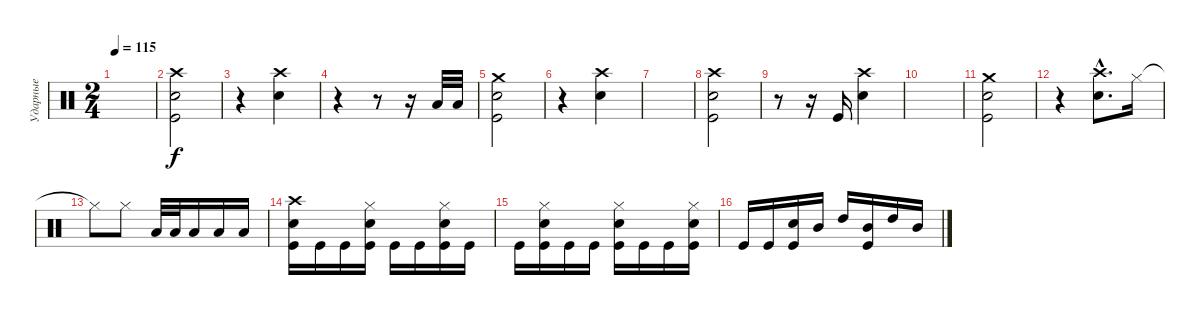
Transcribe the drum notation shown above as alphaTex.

\track ("Ударные" "Ударные") {instrument percussion}
\staff {score}
\articulation defaults
\ts (2 4)
\tempo 115
\clef neutral
\ks c
|
("Crash high (hit)" "Electric Snare (hit)" "Kick (hit)").2 |
r.4 ("Electric Snare (hit)" "Crash high (hit)").4 |
r.4 r.8 r.16 "Low Tom (hit)".32 "Low Tom (hit)".32 |
("Crash medium (hit)" "Electric Snare (hit)" "Kick (hit)").2 |
r.4 ("Electric Snare (hit)" "Crash high (hit)").4 |
|
("Crash high (hit)" "Electric Snare (hit)" "Kick (hit)").2 |
r.8 r.16 "Kick (hit)".16 ("Electric Snare (hit)" "Crash high (hit)").4 |
|
("Crash medium (hit)" "Electric Snare (hit)" "Kick (hit)").2 |
r.4 ("Electric Snare (hit)"{hac} "Crash high (hit)"{hac}).8{d} "Hi-Hat (closed)".16 |
"Hi-Hat (closed)"{t}.8 "Hi-Hat (closed)".8 "Low Tom (hit)".32 "Low Tom (hit)".32 "Low Tom (hit)".16 "Low Tom (hit)".16 "Low Tom (hit)".16 |
("Crash high (hit)" "Electric Snare (hit)" "Kick (hit)").16 "Kick (hit)".16 "Kick (hit)".16 ("Hi-Hat (closed)" "Electric Snare (hit)" "Kick (hit)").16 "Kick (hit)".16 "Kick (hit)".16 ("Hi-Hat (closed)" "Electric Snare (hit)" "Kick (hit)").16 "Kick (hit)".16 |
"Kick (hit)".16 ("Hi-Hat (closed)" "Electric Snare (hit)" "Kick (hit)").16 "Kick (hit)".16 "Kick (hit)".16 ("Hi-Hat (closed)" "Electric Snare (hit)" "Kick (hit)").16 "Kick (hit)".16 "Kick (hit)".16 ("Hi-Hat (closed)" "Electric Snare (hit)" "Kick (hit)").16 |
"Kick (hit)".16 "Kick (hit)".16 ("Electric Snare (hit)" "Kick (hit)").16 "Mid Tom (hit)".16 "High Tom (hit)".16 ("Mid Tom (hit)" "Kick (hit)").16 "High Tom (hit)".16 "Mid Tom (hit)".16
